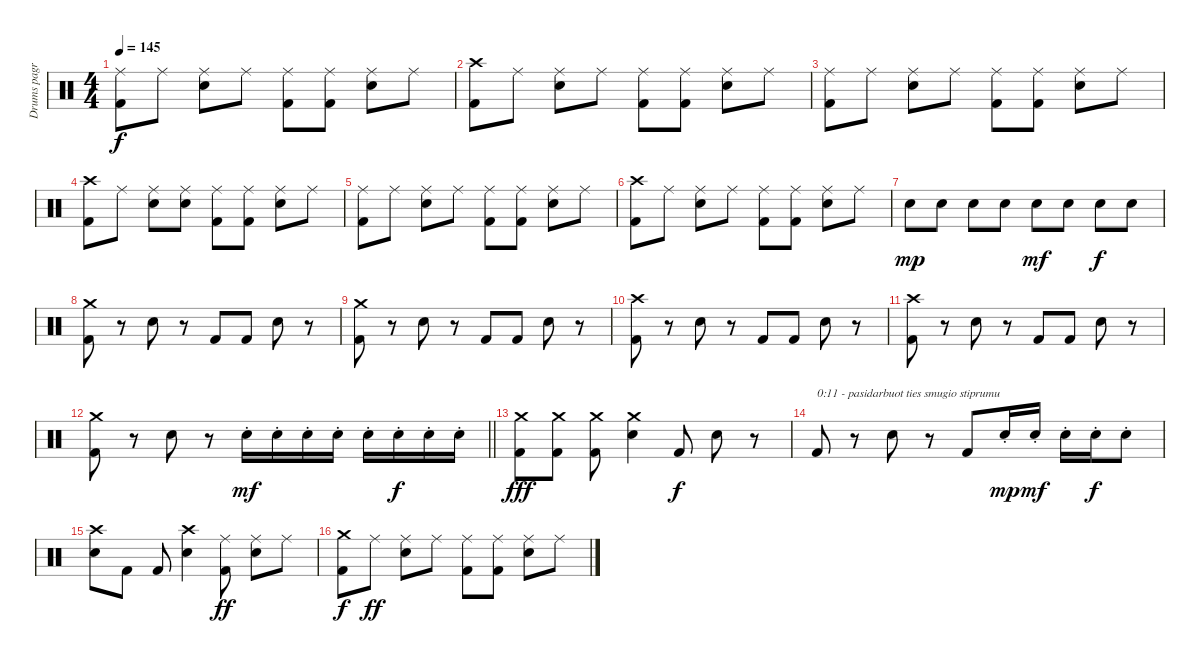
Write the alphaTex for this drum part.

\track ("Drums pagr" "Drums pagr") {instrument percussion}
\staff {score}
\articulation defaults
\ts (4 4)
\tempo 145
\clef neutral
\ks c
("Ride (middle)" "Kick (hit) 2").8{dy f} "Ride (middle)".8 ("Ride (middle)" "Snare (hit) 2").8 "Ride (middle)".8 ("Ride (middle)" "Kick (hit) 2").8 ("Ride (middle)" "Kick (hit) 2").8 ("Ride (middle)" "Snare (hit) 2").8 "Ride (middle)".8 |
("Crash high (hit)" "Kick (hit) 2").8 "Ride (middle)".8 ("Ride (middle)" "Snare (hit) 2").8 "Ride (middle)".8 ("Ride (middle)" "Kick (hit) 2").8 ("Ride (middle)" "Kick (hit) 2").8 ("Ride (middle)" "Snare (hit) 2").8 "Ride (middle)".8 |
("Ride (middle)" "Kick (hit) 2").8 "Ride (middle)".8 ("Ride (middle)" "Snare (hit) 2").8 "Ride (middle)".8 ("Ride (middle)" "Kick (hit) 2").8 ("Ride (middle)" "Kick (hit) 2").8 ("Ride (middle)" "Snare (hit) 2").8 "Ride (middle)".8 |
("Crash high (hit)" "Kick (hit) 2").8 "Ride (middle)".8 ("Ride (middle)" "Snare (hit) 2").8 ("Ride (middle)" "Snare (hit) 2").8 ("Ride (middle)" "Kick (hit) 2").8 ("Ride (middle)" "Kick (hit) 2").8 ("Ride (middle)" "Snare (hit) 2").8 "Ride (middle)".8 |
("Ride (middle)" "Kick (hit) 2").8 "Ride (middle)".8 ("Ride (middle)" "Snare (hit) 2").8 "Ride (middle)".8 ("Ride (middle)" "Kick (hit) 2").8 ("Ride (middle)" "Kick (hit) 2").8 ("Ride (middle)" "Snare (hit) 2").8 "Ride (middle)".8 |
("Crash high (hit)" "Kick (hit) 2").8 "Ride (middle)".8 ("Ride (middle)" "Snare (hit) 2").8 "Ride (middle)".8 ("Ride (middle)" "Kick (hit) 2").8 ("Ride (middle)" "Kick (hit) 2").8 ("Ride (middle)" "Snare (hit) 2").8 "Ride (middle)".8 |
"Snare (hit) 2".8{dy mp} "Snare (hit) 2".8 "Snare (hit) 2".8 "Snare (hit) 2".8 "Snare (hit) 2".8{dy mf} "Snare (hit) 2".8 "Snare (hit) 2".8{dy f} "Snare (hit) 2".8 |
("Crash medium (hit)" "Kick (hit) 2").8 r.8 "Snare (hit) 2".8 r.8 "Kick (hit) 2".8 "Kick (hit) 2".8 "Snare (hit) 2".8 r.8 |
("Crash medium (hit)" "Kick (hit) 2").8 r.8 "Snare (hit) 2".8 r.8 "Kick (hit) 2".8 "Kick (hit) 2".8 "Snare (hit) 2".8 r.8 |
("Crash high (hit)" "Kick (hit) 2").8 r.8 "Snare (hit) 2".8 r.8 "Kick (hit) 2".8 "Kick (hit) 2".8 "Snare (hit) 2".8 r.8 |
("Crash high (hit)" "Kick (hit) 2").8 r.8 "Snare (hit) 2".8 r.8 "Kick (hit) 2".8 "Kick (hit) 2".8 "Snare (hit) 2".8 r.8 |
\barLineRight lightlight
("Crash medium (hit)" "Kick (hit) 2").8 r.8 "Snare (hit) 2".8 r.8 "Snare (hit) 2"{st}.16{dy mf} "Snare (hit) 2"{st}.16 "Snare (hit) 2"{st}.16 "Snare (hit) 2"{st}.16 "Snare (hit) 2"{st}.16 "Snare (hit) 2"{st}.16{dy f} "Snare (hit) 2"{st}.16 "Snare (hit) 2"{st}.16 |
\section ("" "")
("Crash medium (hit)" "Kick (hit) 2").8{dy fff} ("Crash medium (hit)" "Kick (hit) 2").8 ("Crash medium (hit)" "Kick (hit) 2").8 ("Crash medium (hit)" "Snare (hit) 2").4 "Kick (hit) 2".8{dy f} "Snare (hit) 2".8 r.8 |
"Kick (hit) 2".8{txt "0:11 - pasidarbuot ties smugio stiprumu"} r.8 "Snare (hit) 2".8 r.8 "Kick (hit) 2".8 "Snare (hit) 2"{st}.16{dy mp} "Snare (hit) 2"{st}.16{dy mf} "Snare (hit) 2"{st}.16 "Snare (hit) 2"{st}.16{dy f} "Snare (hit) 2"{st}.8 |
("Crash high (hit)" "Snare (hit) 2").8 "Kick (hit) 2".8 "Kick (hit) 2".8 ("Crash high (hit)" "Snare (hit) 2").4 ("Ride (middle)" "Kick (hit) 2").8{dy ff} ("Ride (middle)" "Snare (hit) 2").8 "Ride (middle)".8 |
("Crash medium (hit)" "Kick (hit) 2").8{dy f} "Ride (middle)".8{dy ff} ("Ride (middle)" "Snare (hit) 2").8 "Ride (middle)".8 ("Ride (middle)" "Kick (hit) 2").8 ("Ride (middle)" "Kick (hit) 2").8 ("Ride (middle)" "Snare (hit) 2").8 "Ride (middle)".8
